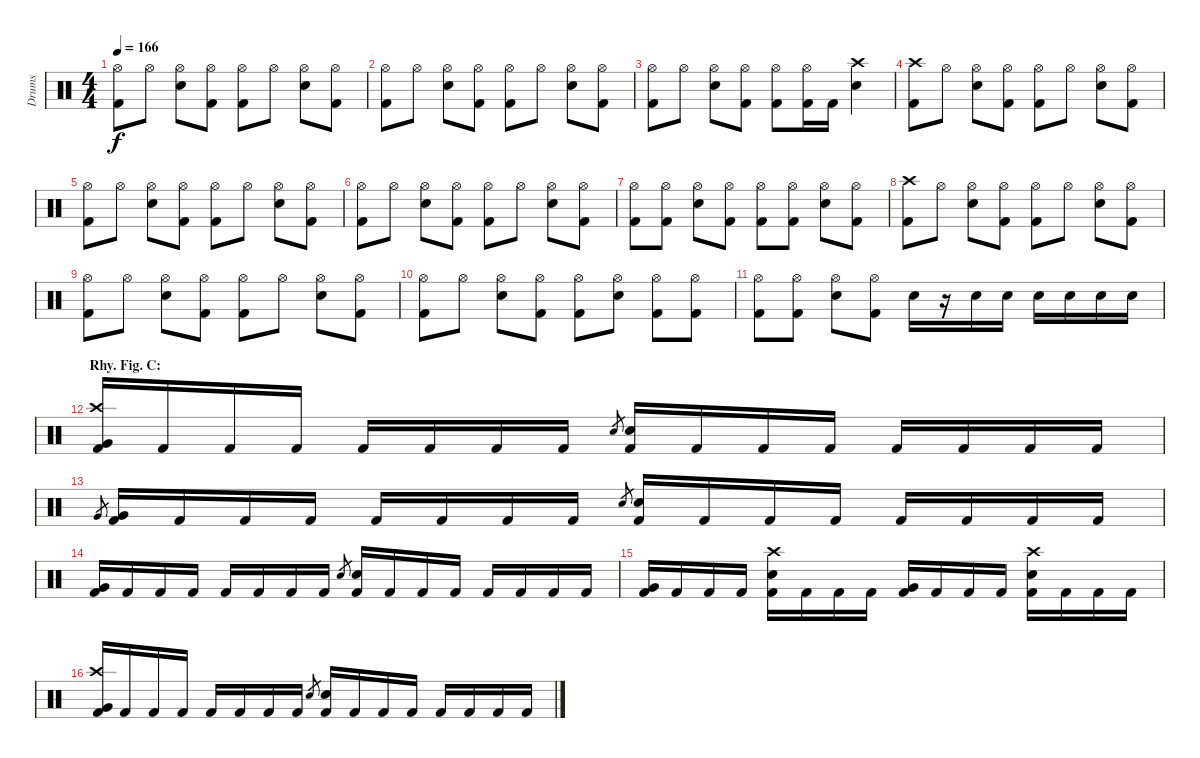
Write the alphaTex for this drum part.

\track ("Drums" "Drums") {instrument percussion}
\staff {score}
\articulation defaults
\ts (4 4)
\tempo 166
\clef neutral
\ks c
("Hi-Hat (open)" "Kick (hit) 2").8{dy f} "Hi-Hat (open)".8 ("Hi-Hat (open)" "Electric Snare (hit)").8 ("Hi-Hat (open)" "Kick (hit) 2").8 ("Hi-Hat (open)" "Kick (hit) 2").8 "Hi-Hat (open)".8 ("Hi-Hat (open)" "Electric Snare (hit)").8 ("Hi-Hat (open)" "Kick (hit) 2").8 |
("Hi-Hat (open)" "Kick (hit) 2").8 "Hi-Hat (open)".8 ("Hi-Hat (open)" "Electric Snare (hit)").8 ("Hi-Hat (open)" "Kick (hit) 2").8 ("Hi-Hat (open)" "Kick (hit) 2").8 "Hi-Hat (open)".8 ("Hi-Hat (open)" "Electric Snare (hit)").8 ("Hi-Hat (open)" "Kick (hit) 2").8 |
("Hi-Hat (open)" "Kick (hit) 2").8 "Hi-Hat (open)".8 ("Hi-Hat (open)" "Electric Snare (hit)").8 ("Hi-Hat (open)" "Kick (hit) 2").8 ("Hi-Hat (open)" "Kick (hit) 2").8 ("Hi-Hat (open)" "Kick (hit) 2").16 "Kick (hit) 2".16 ("Crash high (hit)" "Electric Snare (hit)").4 |
("Crash high (hit)" "Kick (hit) 2").8 "Hi-Hat (open)".8 ("Hi-Hat (open)" "Electric Snare (hit)").8 ("Hi-Hat (open)" "Kick (hit) 2").8 ("Hi-Hat (open)" "Kick (hit) 2").8 "Hi-Hat (open)".8 ("Hi-Hat (open)" "Electric Snare (hit)").8 ("Hi-Hat (open)" "Kick (hit) 2").8 |
("Hi-Hat (open)" "Kick (hit) 2").8 "Hi-Hat (open)".8 ("Hi-Hat (open)" "Electric Snare (hit)").8 ("Hi-Hat (open)" "Kick (hit) 2").8 ("Hi-Hat (open)" "Kick (hit) 2").8 "Hi-Hat (open)".8 ("Hi-Hat (open)" "Electric Snare (hit)").8 ("Hi-Hat (open)" "Kick (hit) 2").8 |
("Hi-Hat (open)" "Kick (hit) 2").8 "Hi-Hat (open)".8 ("Hi-Hat (open)" "Electric Snare (hit)").8 ("Hi-Hat (open)" "Kick (hit) 2").8 ("Hi-Hat (open)" "Kick (hit) 2").8 "Hi-Hat (open)".8 ("Hi-Hat (open)" "Electric Snare (hit)").8 ("Hi-Hat (open)" "Kick (hit) 2").8 |
("Hi-Hat (open)" "Kick (hit) 2").8 ("Hi-Hat (open)" "Kick (hit) 2").8 ("Hi-Hat (open)" "Electric Snare (hit)").8 ("Hi-Hat (open)" "Kick (hit) 2").8 ("Hi-Hat (open)" "Kick (hit) 2").8 ("Hi-Hat (open)" "Kick (hit) 2").8 ("Hi-Hat (open)" "Electric Snare (hit)").8 ("Hi-Hat (open)" "Kick (hit) 2").8 |
("Crash high (hit)" "Kick (hit) 2").8 "Hi-Hat (open)".8 ("Hi-Hat (open)" "Electric Snare (hit)").8 ("Hi-Hat (open)" "Kick (hit) 2").8 ("Hi-Hat (open)" "Kick (hit) 2").8 "Hi-Hat (open)".8 ("Hi-Hat (open)" "Electric Snare (hit)").8 ("Hi-Hat (open)" "Kick (hit) 2").8 |
("Hi-Hat (open)" "Kick (hit) 2").8 "Hi-Hat (open)".8 ("Hi-Hat (open)" "Electric Snare (hit)").8 ("Hi-Hat (open)" "Kick (hit) 2").8 ("Hi-Hat (open)" "Kick (hit) 2").8 "Hi-Hat (open)".8 ("Hi-Hat (open)" "Electric Snare (hit)").8 ("Hi-Hat (open)" "Kick (hit) 2").8 |
("Hi-Hat (open)" "Kick (hit) 2").8 "Hi-Hat (open)".8 ("Hi-Hat (open)" "Electric Snare (hit)").8 ("Hi-Hat (open)" "Kick (hit) 2").8 ("Hi-Hat (open)" "Kick (hit) 2").8 ("Hi-Hat (open)" "Electric Snare (hit)").8 ("Hi-Hat (open)" "Kick (hit) 2").8 ("Hi-Hat (open)" "Kick (hit) 2").8 |
("Hi-Hat (open)" "Kick (hit) 2").8 ("Hi-Hat (open)" "Kick (hit) 2").8 ("Hi-Hat (open)" "Electric Snare (hit)").8 ("Hi-Hat (open)" "Kick (hit) 2").8 "Electric Snare (hit)".16 r.16 "Electric Snare (hit)".16 "Electric Snare (hit)".16 "Electric Snare (hit)".16 "Electric Snare (hit)".16 "Electric Snare (hit)".16 "Electric Snare (hit)".16 |
\section ("" "Rhy. Fig. C:")
("Crash high (hit)" "Very Low Tom (hit)" "Kick (hit) 2").16 "Kick (hit) 2".16 "Kick (hit) 2".16 "Kick (hit) 2".16 "Kick (hit) 2".16 "Kick (hit) 2".16 "Kick (hit) 2".16 "Kick (hit) 2".16 "Electric Snare (hit)".8{gr} ("Electric Snare (hit)" "Kick (hit) 2").16 "Kick (hit) 2".16 "Kick (hit) 2".16 "Kick (hit) 2".16 "Kick (hit) 2".16 "Kick (hit) 2".16 "Kick (hit) 2".16 "Kick (hit) 2".16 |
"Very Low Tom (hit)".8{gr} ("Very Low Tom (hit)" "Kick (hit) 2").16 "Kick (hit) 2".16 "Kick (hit) 2".16 "Kick (hit) 2".16 "Kick (hit) 2".16 "Kick (hit) 2".16 "Kick (hit) 2".16 "Kick (hit) 2".16 "Electric Snare (hit)".8{gr} ("Electric Snare (hit)" "Kick (hit) 2").16 "Kick (hit) 2".16 "Kick (hit) 2".16 "Kick (hit) 2".16 "Kick (hit) 2".16 "Kick (hit) 2".16 "Kick (hit) 2".16 "Kick (hit) 2".16 |
("Very Low Tom (hit)" "Kick (hit) 2").16 "Kick (hit) 2".16 "Kick (hit) 2".16 "Kick (hit) 2".16 "Kick (hit) 2".16 "Kick (hit) 2".16 "Kick (hit) 2".16 "Kick (hit) 2".16 "Electric Snare (hit)".8{gr} ("Electric Snare (hit)" "Kick (hit) 2").16 "Kick (hit) 2".16 "Kick (hit) 2".16 "Kick (hit) 2".16 "Kick (hit) 2".16 "Kick (hit) 2".16 "Kick (hit) 2".16 "Kick (hit) 2".16 |
("Very Low Tom (hit)" "Kick (hit) 2").16 "Kick (hit) 2".16 "Kick (hit) 2".16 "Kick (hit) 2".16 ("Crash high (hit)" "Electric Snare (hit)" "Kick (hit) 2").16 "Kick (hit) 2".16 "Kick (hit) 2".16 "Kick (hit) 2".16 ("Very Low Tom (hit)" "Kick (hit) 2").16 "Kick (hit) 2".16 "Kick (hit) 2".16 "Kick (hit) 2".16 ("Crash high (hit)" "Electric Snare (hit)" "Kick (hit) 2").16 "Kick (hit) 2".16 "Kick (hit) 2".16 "Kick (hit) 2".16 |
("Crash high (hit)" "Very Low Tom (hit)" "Kick (hit) 2").16 "Kick (hit) 2".16 "Kick (hit) 2".16 "Kick (hit) 2".16 "Kick (hit) 2".16 "Kick (hit) 2".16 "Kick (hit) 2".16 "Kick (hit) 2".16 "Electric Snare (hit)".8{gr} ("Electric Snare (hit)" "Kick (hit) 2").16 "Kick (hit) 2".16 "Kick (hit) 2".16 "Kick (hit) 2".16 "Kick (hit) 2".16 "Kick (hit) 2".16 "Kick (hit) 2".16 "Kick (hit) 2".16
